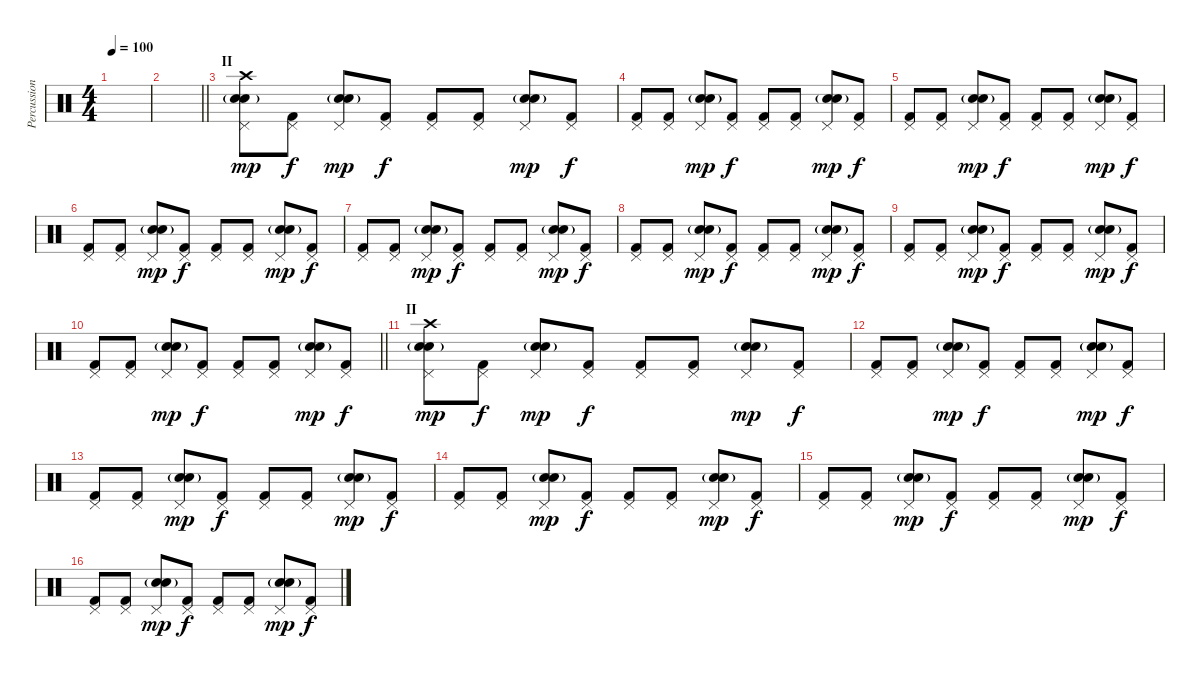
\track ("Percussion" "Percussion") {instrument percussion}
\staff {score}
\articulation defaults
\ts (4 4)
\tempo 100
\clef neutral
\ks c
|
\barLineRight lightlight
|
\section ("" "II")
("Crash high (hit)" "Electric Snare (hit)" "Snare (hit) 2"{g} "Pedal Hi-Hat (hit)").8{dy mp} ("Kick (hit) 2" "Pedal Hi-Hat (hit)").8{dy f} ("Electric Snare (hit)" "Snare (hit) 2"{g} "Pedal Hi-Hat (hit)").8{dy mp} ("Kick (hit) 2" "Pedal Hi-Hat (hit)").8{dy f} ("Kick (hit) 2" "Pedal Hi-Hat (hit)").8 ("Kick (hit) 2" "Pedal Hi-Hat (hit)").8 ("Electric Snare (hit)" "Snare (hit) 2"{g} "Pedal Hi-Hat (hit)").8{dy mp} ("Kick (hit) 2" "Pedal Hi-Hat (hit)").8{dy f} |
("Kick (hit) 2" "Pedal Hi-Hat (hit)").8 ("Kick (hit) 2" "Pedal Hi-Hat (hit)").8 ("Electric Snare (hit)" "Snare (hit) 2"{g} "Pedal Hi-Hat (hit)").8{dy mp} ("Kick (hit) 2" "Pedal Hi-Hat (hit)").8{dy f} ("Kick (hit) 2" "Pedal Hi-Hat (hit)").8 ("Kick (hit) 2" "Pedal Hi-Hat (hit)").8 ("Electric Snare (hit)" "Snare (hit) 2"{g} "Pedal Hi-Hat (hit)").8{dy mp} ("Kick (hit) 2" "Pedal Hi-Hat (hit)").8{dy f} |
("Kick (hit) 2" "Pedal Hi-Hat (hit)").8 ("Kick (hit) 2" "Pedal Hi-Hat (hit)").8 ("Electric Snare (hit)" "Snare (hit) 2"{g} "Pedal Hi-Hat (hit)").8{dy mp} ("Kick (hit) 2" "Pedal Hi-Hat (hit)").8{dy f} ("Kick (hit) 2" "Pedal Hi-Hat (hit)").8 ("Kick (hit) 2" "Pedal Hi-Hat (hit)").8 ("Electric Snare (hit)" "Snare (hit) 2"{g} "Pedal Hi-Hat (hit)").8{dy mp} ("Kick (hit) 2" "Pedal Hi-Hat (hit)").8{dy f} |
("Kick (hit) 2" "Pedal Hi-Hat (hit)").8 ("Kick (hit) 2" "Pedal Hi-Hat (hit)").8 ("Electric Snare (hit)" "Snare (hit) 2"{g} "Pedal Hi-Hat (hit)").8{dy mp} ("Kick (hit) 2" "Pedal Hi-Hat (hit)").8{dy f} ("Kick (hit) 2" "Pedal Hi-Hat (hit)").8 ("Kick (hit) 2" "Pedal Hi-Hat (hit)").8 ("Electric Snare (hit)" "Snare (hit) 2"{g} "Pedal Hi-Hat (hit)").8{dy mp} ("Kick (hit) 2" "Pedal Hi-Hat (hit)").8{dy f} |
("Kick (hit) 2" "Pedal Hi-Hat (hit)").8 ("Kick (hit) 2" "Pedal Hi-Hat (hit)").8 ("Electric Snare (hit)" "Snare (hit) 2"{g} "Pedal Hi-Hat (hit)").8{dy mp} ("Kick (hit) 2" "Pedal Hi-Hat (hit)").8{dy f} ("Kick (hit) 2" "Pedal Hi-Hat (hit)").8 ("Kick (hit) 2" "Pedal Hi-Hat (hit)").8 ("Electric Snare (hit)" "Snare (hit) 2"{g} "Pedal Hi-Hat (hit)").8{dy mp} ("Kick (hit) 2" "Pedal Hi-Hat (hit)").8{dy f} |
("Kick (hit) 2" "Pedal Hi-Hat (hit)").8 ("Kick (hit) 2" "Pedal Hi-Hat (hit)").8 ("Electric Snare (hit)" "Snare (hit) 2"{g} "Pedal Hi-Hat (hit)").8{dy mp} ("Kick (hit) 2" "Pedal Hi-Hat (hit)").8{dy f} ("Kick (hit) 2" "Pedal Hi-Hat (hit)").8 ("Kick (hit) 2" "Pedal Hi-Hat (hit)").8 ("Electric Snare (hit)" "Snare (hit) 2"{g} "Pedal Hi-Hat (hit)").8{dy mp} ("Kick (hit) 2" "Pedal Hi-Hat (hit)").8{dy f} |
("Kick (hit) 2" "Pedal Hi-Hat (hit)").8 ("Kick (hit) 2" "Pedal Hi-Hat (hit)").8 ("Electric Snare (hit)" "Snare (hit) 2"{g} "Pedal Hi-Hat (hit)").8{dy mp} ("Kick (hit) 2" "Pedal Hi-Hat (hit)").8{dy f} ("Kick (hit) 2" "Pedal Hi-Hat (hit)").8 ("Kick (hit) 2" "Pedal Hi-Hat (hit)").8 ("Electric Snare (hit)" "Snare (hit) 2"{g} "Pedal Hi-Hat (hit)").8{dy mp} ("Kick (hit) 2" "Pedal Hi-Hat (hit)").8{dy f} |
\barLineRight lightlight
("Kick (hit) 2" "Pedal Hi-Hat (hit)").8 ("Kick (hit) 2" "Pedal Hi-Hat (hit)").8 ("Electric Snare (hit)" "Snare (hit) 2"{g} "Pedal Hi-Hat (hit)").8{dy mp} ("Kick (hit) 2" "Pedal Hi-Hat (hit)").8{dy f} ("Kick (hit) 2" "Pedal Hi-Hat (hit)").8 ("Kick (hit) 2" "Pedal Hi-Hat (hit)").8 ("Electric Snare (hit)" "Snare (hit) 2"{g} "Pedal Hi-Hat (hit)").8{dy mp} ("Kick (hit) 2" "Pedal Hi-Hat (hit)").8{dy f} |
\section ("" "II")
("Crash high (hit)" "Electric Snare (hit)" "Snare (hit) 2"{g} "Pedal Hi-Hat (hit)").8{dy mp} ("Kick (hit) 2" "Pedal Hi-Hat (hit)").8{dy f} ("Electric Snare (hit)" "Snare (hit) 2"{g} "Pedal Hi-Hat (hit)").8{dy mp} ("Kick (hit) 2" "Pedal Hi-Hat (hit)").8{dy f} ("Kick (hit) 2" "Pedal Hi-Hat (hit)").8 ("Kick (hit) 2" "Pedal Hi-Hat (hit)").8 ("Electric Snare (hit)" "Snare (hit) 2"{g} "Pedal Hi-Hat (hit)").8{dy mp} ("Kick (hit) 2" "Pedal Hi-Hat (hit)").8{dy f} |
("Kick (hit) 2" "Pedal Hi-Hat (hit)").8 ("Kick (hit) 2" "Pedal Hi-Hat (hit)").8 ("Electric Snare (hit)" "Snare (hit) 2"{g} "Pedal Hi-Hat (hit)").8{dy mp} ("Kick (hit) 2" "Pedal Hi-Hat (hit)").8{dy f} ("Kick (hit) 2" "Pedal Hi-Hat (hit)").8 ("Kick (hit) 2" "Pedal Hi-Hat (hit)").8 ("Electric Snare (hit)" "Snare (hit) 2"{g} "Pedal Hi-Hat (hit)").8{dy mp} ("Kick (hit) 2" "Pedal Hi-Hat (hit)").8{dy f} |
("Kick (hit) 2" "Pedal Hi-Hat (hit)").8 ("Kick (hit) 2" "Pedal Hi-Hat (hit)").8 ("Electric Snare (hit)" "Snare (hit) 2"{g} "Pedal Hi-Hat (hit)").8{dy mp} ("Kick (hit) 2" "Pedal Hi-Hat (hit)").8{dy f} ("Kick (hit) 2" "Pedal Hi-Hat (hit)").8 ("Kick (hit) 2" "Pedal Hi-Hat (hit)").8 ("Electric Snare (hit)" "Snare (hit) 2"{g} "Pedal Hi-Hat (hit)").8{dy mp} ("Kick (hit) 2" "Pedal Hi-Hat (hit)").8{dy f} |
("Kick (hit) 2" "Pedal Hi-Hat (hit)").8 ("Kick (hit) 2" "Pedal Hi-Hat (hit)").8 ("Electric Snare (hit)" "Snare (hit) 2"{g} "Pedal Hi-Hat (hit)").8{dy mp} ("Kick (hit) 2" "Pedal Hi-Hat (hit)").8{dy f} ("Kick (hit) 2" "Pedal Hi-Hat (hit)").8 ("Kick (hit) 2" "Pedal Hi-Hat (hit)").8 ("Electric Snare (hit)" "Snare (hit) 2"{g} "Pedal Hi-Hat (hit)").8{dy mp} ("Kick (hit) 2" "Pedal Hi-Hat (hit)").8{dy f} |
("Kick (hit) 2" "Pedal Hi-Hat (hit)").8 ("Kick (hit) 2" "Pedal Hi-Hat (hit)").8 ("Electric Snare (hit)" "Snare (hit) 2"{g} "Pedal Hi-Hat (hit)").8{dy mp} ("Kick (hit) 2" "Pedal Hi-Hat (hit)").8{dy f} ("Kick (hit) 2" "Pedal Hi-Hat (hit)").8 ("Kick (hit) 2" "Pedal Hi-Hat (hit)").8 ("Electric Snare (hit)" "Snare (hit) 2"{g} "Pedal Hi-Hat (hit)").8{dy mp} ("Kick (hit) 2" "Pedal Hi-Hat (hit)").8{dy f} |
("Kick (hit) 2" "Pedal Hi-Hat (hit)").8 ("Kick (hit) 2" "Pedal Hi-Hat (hit)").8 ("Electric Snare (hit)" "Snare (hit) 2"{g} "Pedal Hi-Hat (hit)").8{dy mp} ("Kick (hit) 2" "Pedal Hi-Hat (hit)").8{dy f} ("Kick (hit) 2" "Pedal Hi-Hat (hit)").8 ("Kick (hit) 2" "Pedal Hi-Hat (hit)").8 ("Electric Snare (hit)" "Snare (hit) 2"{g} "Pedal Hi-Hat (hit)").8{dy mp} ("Kick (hit) 2" "Pedal Hi-Hat (hit)").8{dy f}
